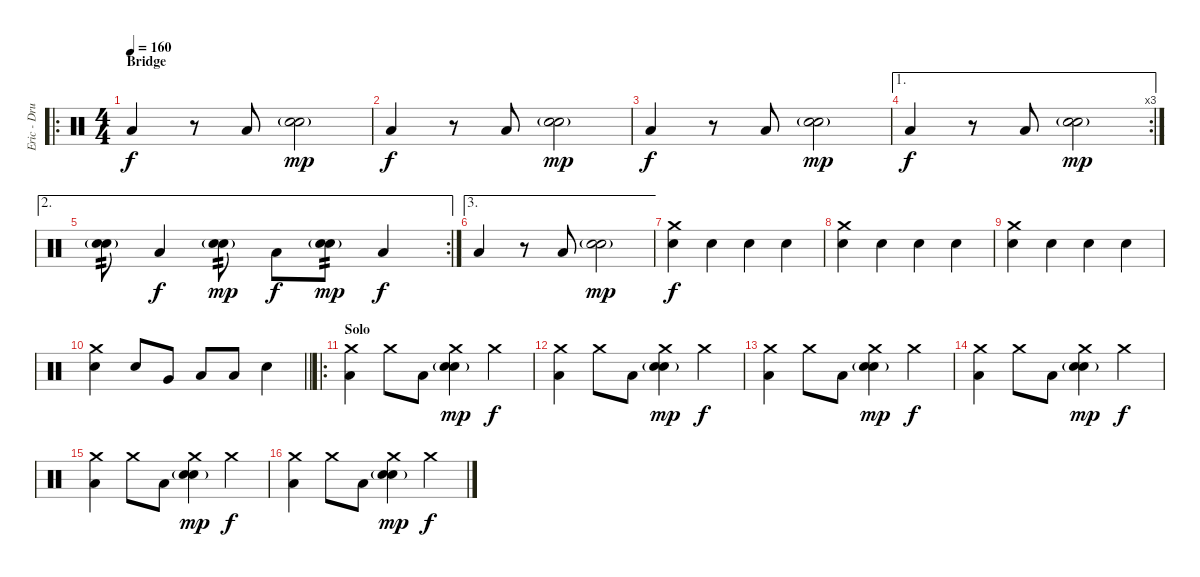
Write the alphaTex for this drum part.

\track ("Eric - Drums" "Eric - Dru") {instrument percussion}
\staff {score}
\articulation defaults
\ro
\ts (4 4)
\section ("" "Bridge")
\tempo 160
\clef neutral
\ks c "Low Floor Tom (hit)".4{dy f volume 16}
r.8 "Low Floor Tom (hit)".8 ("Electric Snare (hit)" "Snare (hit) 2"{g}).2{dy mp} |
"Low Floor Tom (hit)".4{dy f} r.8 "Low Floor Tom (hit)".8 ("Electric Snare (hit)" "Snare (hit) 2"{g}).2{dy mp} |
"Low Floor Tom (hit)".4{dy f} r.8 "Low Floor Tom (hit)".8 ("Electric Snare (hit)" "Snare (hit) 2"{g}).2{dy mp} |
\ae 1
\rc 3 "Low Floor Tom (hit)".4{dy f}
r.8 "Low Floor Tom (hit)".8 ("Electric Snare (hit)" "Snare (hit) 2"{g}).2{dy mp} |
\ae 2
\rc 2
("Electric Snare (hit)" "Snare (hit) 2"{g}).8{tp 2} "Low Floor Tom (hit)".4{dy f} ("Electric Snare (hit)" "Snare (hit) 2"{g}).8{tp 2 dy mp} "Low Floor Tom (hit)".8{dy f} ("Electric Snare (hit)" "Snare (hit) 2"{g}).8{tp 2 dy mp} "Low Floor Tom (hit)".4{dy f} |
\ae 3 "Low Floor Tom (hit)".4
r.8 "Low Floor Tom (hit)".8 ("Electric Snare (hit)" "Snare (hit) 2"{g}).2{dy mp} |
("Crash medium (hit)" "Electric Snare (hit)").4{dy f volume 13} "Electric Snare (hit)".4 "Electric Snare (hit)".4 "Electric Snare (hit)".4 |
("Crash medium (hit)" "Electric Snare (hit)").4 "Electric Snare (hit)".4 "Electric Snare (hit)".4 "Electric Snare (hit)".4 |
("Crash medium (hit)" "Electric Snare (hit)").4 "Electric Snare (hit)".4 "Electric Snare (hit)".4 "Electric Snare (hit)".4 |
\barLineRight lightlight
("Crash medium (hit)" "Electric Snare (hit)").4 "Electric Snare (hit)".8 "Very Low Tom (hit)".8 "Low Floor Tom (hit)".8 "Low Floor Tom (hit)".8 "Electric Snare (hit)".4 |
\ro
\section ("" "Solo")
("Crash medium (hit)" "Low Floor Tom (hit)").4 "Crash medium (hit)".8 "Low Floor Tom (hit)".8 ("Crash medium (hit)" "Electric Snare (hit)" "Snare (hit) 2"{g}).4{dy mp} "Crash medium (hit)".4{dy f} |
("Crash medium (hit)" "Low Floor Tom (hit)").4 "Crash medium (hit)".8 "Low Floor Tom (hit)".8 ("Crash medium (hit)" "Electric Snare (hit)" "Snare (hit) 2"{g}).4{dy mp} "Crash medium (hit)".4{dy f} |
("Crash medium (hit)" "Low Floor Tom (hit)").4 "Crash medium (hit)".8 "Low Floor Tom (hit)".8 ("Crash medium (hit)" "Electric Snare (hit)" "Snare (hit) 2"{g}).4{dy mp} "Crash medium (hit)".4{dy f} |
("Crash medium (hit)" "Low Floor Tom (hit)").4 "Crash medium (hit)".8 "Low Floor Tom (hit)".8 ("Crash medium (hit)" "Electric Snare (hit)" "Snare (hit) 2"{g}).4{dy mp} "Crash medium (hit)".4{dy f} |
("Crash medium (hit)" "Low Floor Tom (hit)").4 "Crash medium (hit)".8 "Low Floor Tom (hit)".8 ("Crash medium (hit)" "Electric Snare (hit)" "Snare (hit) 2"{g}).4{dy mp} "Crash medium (hit)".4{dy f} |
("Crash medium (hit)" "Low Floor Tom (hit)").4 "Crash medium (hit)".8 "Low Floor Tom (hit)".8 ("Crash medium (hit)" "Electric Snare (hit)" "Snare (hit) 2"{g}).4{dy mp} "Crash medium (hit)".4{dy f}
